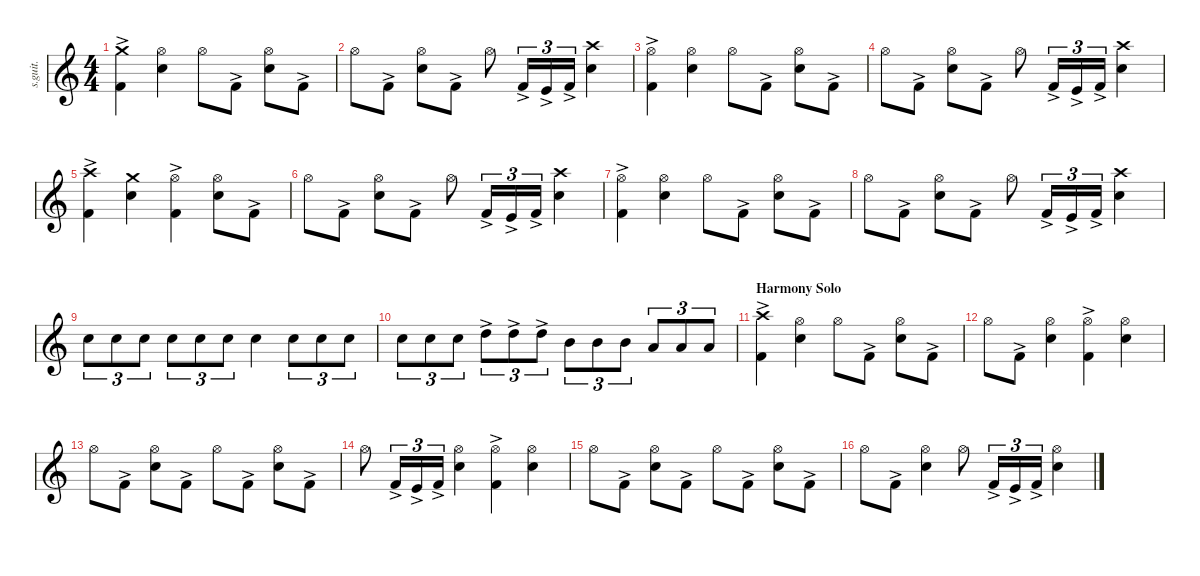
\defaultSystemsLayout 4
\hideDynamics
\bracketExtendMode nobrackets
\track ("Lars Ulrich - Drums" "s.guit.") {instrument percussion}
\staff {score}
\articulation defaults
\ts (4 4)
\tempo (220 hide)
\clef g2
\ks c
("Crash medium (hit)" "Kick (hit) 2"{ac}).4{lyrics (0 "") lyrics (1 "") lyrics (2 "") lyrics (3 "") lyrics (4 "") dy f} ("Hi-Hat (open)" "Snare (hit) 2").4{lyrics (0 "") lyrics (1 "") lyrics (2 "") lyrics (3 "") lyrics (4 "")} "Hi-Hat (open)".8{lyrics (0 "") lyrics (1 "") lyrics (2 "") lyrics (3 "") lyrics (4 "")} "Kick (hit) 2"{ac}.8{lyrics (0 "") lyrics (1 "") lyrics (2 "") lyrics (3 "") lyrics (4 "") dy mp} ("Hi-Hat (open)" "Snare (hit) 2").8{lyrics (0 "") lyrics (1 "") lyrics (2 "") lyrics (3 "") lyrics (4 "") dy f} "Kick (hit) 2"{ac}.8{lyrics (0 "") lyrics (1 "") lyrics (2 "") lyrics (3 "") lyrics (4 "") dy mp} |
"Hi-Hat (open)".8{lyrics (0 "") lyrics (1 "") lyrics (2 "") lyrics (3 "") lyrics (4 "") dy f} "Kick (hit) 2"{ac}.8{lyrics (0 "") lyrics (1 "") lyrics (2 "") lyrics (3 "") lyrics (4 "") dy mp} ("Hi-Hat (open)" "Snare (hit) 2").8{lyrics (0 "") lyrics (1 "") lyrics (2 "") lyrics (3 "") lyrics (4 "") dy f} "Kick (hit) 2"{ac}.8{lyrics (0 "") lyrics (1 "") lyrics (2 "") lyrics (3 "") lyrics (4 "") dy mp} "Hi-Hat (open)".8{lyrics (0 "") lyrics (1 "") lyrics (2 "") lyrics (3 "") lyrics (4 "") dy f} "Kick (hit) 2"{ac}.16{tu (3 2) lyrics (0 "") lyrics (1 "") lyrics (2 "") lyrics (3 "") lyrics (4 "") dy mp} "Kick (hit)"{ac}.16{tu (3 2) lyrics (0 "") lyrics (1 "") lyrics (2 "") lyrics (3 "") lyrics (4 "") dy mf} "Kick (hit) 2"{ac}.16{tu (3 2) lyrics (0 "") lyrics (1 "") lyrics (2 "") lyrics (3 "") lyrics (4 "") dy mp} ("Crash high (hit)" "Snare (hit) 2").4{lyrics (0 "") lyrics (1 "") lyrics (2 "") lyrics (3 "") lyrics (4 "") dy f} |
("Hi-Hat (open)" "Kick (hit) 2"{ac}).4{lyrics (0 "") lyrics (1 "") lyrics (2 "") lyrics (3 "") lyrics (4 "")} ("Hi-Hat (open)" "Snare (hit) 2").4{lyrics (0 "") lyrics (1 "") lyrics (2 "") lyrics (3 "") lyrics (4 "")} "Hi-Hat (open)".8{lyrics (0 "") lyrics (1 "") lyrics (2 "") lyrics (3 "") lyrics (4 "")} "Kick (hit) 2"{ac}.8{lyrics (0 "") lyrics (1 "") lyrics (2 "") lyrics (3 "") lyrics (4 "") dy mp} ("Hi-Hat (open)" "Snare (hit) 2").8{lyrics (0 "") lyrics (1 "") lyrics (2 "") lyrics (3 "") lyrics (4 "") dy f} "Kick (hit) 2"{ac}.8{lyrics (0 "") lyrics (1 "") lyrics (2 "") lyrics (3 "") lyrics (4 "") dy mp} |
"Hi-Hat (open)".8{lyrics (0 "") lyrics (1 "") lyrics (2 "") lyrics (3 "") lyrics (4 "") dy f} "Kick (hit) 2"{ac}.8{lyrics (0 "") lyrics (1 "") lyrics (2 "") lyrics (3 "") lyrics (4 "") dy mp} ("Hi-Hat (open)" "Snare (hit) 2").8{lyrics (0 "") lyrics (1 "") lyrics (2 "") lyrics (3 "") lyrics (4 "") dy f} "Kick (hit) 2"{ac}.8{lyrics (0 "") lyrics (1 "") lyrics (2 "") lyrics (3 "") lyrics (4 "") dy mp} "Hi-Hat (open)".8{lyrics (0 "") lyrics (1 "") lyrics (2 "") lyrics (3 "") lyrics (4 "") dy f} "Kick (hit) 2"{ac}.16{tu (3 2) lyrics (0 "") lyrics (1 "") lyrics (2 "") lyrics (3 "") lyrics (4 "") dy mp} "Kick (hit)"{ac}.16{tu (3 2) lyrics (0 "") lyrics (1 "") lyrics (2 "") lyrics (3 "") lyrics (4 "") dy mf} "Kick (hit) 2"{ac}.16{tu (3 2) lyrics (0 "") lyrics (1 "") lyrics (2 "") lyrics (3 "") lyrics (4 "") dy mp} ("Snare (hit) 2" "Crash high (hit)").4{lyrics (0 "") lyrics (1 "") lyrics (2 "") lyrics (3 "") lyrics (4 "") dy f} |
("Crash high (hit)" "Kick (hit) 2"{ac}).4{lyrics (0 "") lyrics (1 "") lyrics (2 "") lyrics (3 "") lyrics (4 "")} ("Snare (hit) 2" "Crash medium (hit)").4{lyrics (0 "") lyrics (1 "") lyrics (2 "") lyrics (3 "") lyrics (4 "")} ("Hi-Hat (open)" "Kick (hit) 2"{ac}).4{lyrics (0 "") lyrics (1 "") lyrics (2 "") lyrics (3 "") lyrics (4 "")} ("Hi-Hat (open)" "Snare (hit) 2").8{lyrics (0 "") lyrics (1 "") lyrics (2 "") lyrics (3 "") lyrics (4 "")} "Kick (hit) 2"{ac}.8{lyrics (0 "") lyrics (1 "") lyrics (2 "") lyrics (3 "") lyrics (4 "") dy mp} |
"Hi-Hat (open)".8{lyrics (0 "") lyrics (1 "") lyrics (2 "") lyrics (3 "") lyrics (4 "") dy f} "Kick (hit) 2"{ac}.8{lyrics (0 "") lyrics (1 "") lyrics (2 "") lyrics (3 "") lyrics (4 "") dy mp} ("Hi-Hat (open)" "Snare (hit) 2").8{lyrics (0 "") lyrics (1 "") lyrics (2 "") lyrics (3 "") lyrics (4 "") dy f} "Kick (hit) 2"{ac}.8{lyrics (0 "") lyrics (1 "") lyrics (2 "") lyrics (3 "") lyrics (4 "") dy mp} "Hi-Hat (open)".8{lyrics (0 "") lyrics (1 "") lyrics (2 "") lyrics (3 "") lyrics (4 "") dy f} "Kick (hit) 2"{ac}.16{tu (3 2) lyrics (0 "") lyrics (1 "") lyrics (2 "") lyrics (3 "") lyrics (4 "") dy mp} "Kick (hit)"{ac}.16{tu (3 2) lyrics (0 "") lyrics (1 "") lyrics (2 "") lyrics (3 "") lyrics (4 "") dy mf} "Kick (hit) 2"{ac}.16{tu (3 2) lyrics (0 "") lyrics (1 "") lyrics (2 "") lyrics (3 "") lyrics (4 "") dy mp} ("Crash high (hit)" "Snare (hit) 2").4{lyrics (0 "") lyrics (1 "") lyrics (2 "") lyrics (3 "") lyrics (4 "") dy f} |
("Hi-Hat (open)" "Kick (hit) 2"{ac}).4{lyrics (0 "") lyrics (1 "") lyrics (2 "") lyrics (3 "") lyrics (4 "")} ("Hi-Hat (open)" "Snare (hit) 2").4{lyrics (0 "") lyrics (1 "") lyrics (2 "") lyrics (3 "") lyrics (4 "")} "Hi-Hat (open)".8{lyrics (0 "") lyrics (1 "") lyrics (2 "") lyrics (3 "") lyrics (4 "")} "Kick (hit) 2"{ac}.8{lyrics (0 "") lyrics (1 "") lyrics (2 "") lyrics (3 "") lyrics (4 "") dy mp} ("Hi-Hat (open)" "Snare (hit) 2").8{lyrics (0 "") lyrics (1 "") lyrics (2 "") lyrics (3 "") lyrics (4 "") dy f} "Kick (hit) 2"{ac}.8{lyrics (0 "") lyrics (1 "") lyrics (2 "") lyrics (3 "") lyrics (4 "") dy mp} |
"Hi-Hat (open)".8{lyrics (0 "") lyrics (1 "") lyrics (2 "") lyrics (3 "") lyrics (4 "") dy f} "Kick (hit) 2"{ac}.8{lyrics (0 "") lyrics (1 "") lyrics (2 "") lyrics (3 "") lyrics (4 "") dy mp} ("Hi-Hat (open)" "Snare (hit) 2").8{lyrics (0 "") lyrics (1 "") lyrics (2 "") lyrics (3 "") lyrics (4 "") dy f} "Kick (hit) 2"{ac}.8{lyrics (0 "") lyrics (1 "") lyrics (2 "") lyrics (3 "") lyrics (4 "") dy mp} "Hi-Hat (open)".8{lyrics (0 "") lyrics (1 "") lyrics (2 "") lyrics (3 "") lyrics (4 "") dy f} "Kick (hit) 2"{ac}.16{tu (3 2) lyrics (0 "") lyrics (1 "") lyrics (2 "") lyrics (3 "") lyrics (4 "") dy mp} "Kick (hit)"{ac}.16{tu (3 2) lyrics (0 "") lyrics (1 "") lyrics (2 "") lyrics (3 "") lyrics (4 "") dy mf} "Kick (hit) 2"{ac}.16{tu (3 2) lyrics (0 "") lyrics (1 "") lyrics (2 "") lyrics (3 "") lyrics (4 "") dy mp} ("Snare (hit) 2" "Crash high (hit)").4{lyrics (0 "") lyrics (1 "") lyrics (2 "") lyrics (3 "") lyrics (4 "") dy f} |
"Snare (hit) 2".8{tu (3 2) lyrics (0 "") lyrics (1 "") lyrics (2 "") lyrics (3 "") lyrics (4 "")} "Snare (hit) 2".8{tu (3 2) lyrics (0 "") lyrics (1 "") lyrics (2 "") lyrics (3 "") lyrics (4 "")} "Snare (hit) 2".8{tu (3 2) lyrics (0 "") lyrics (1 "") lyrics (2 "") lyrics (3 "") lyrics (4 "")} "Snare (hit) 2".8{tu (3 2) lyrics (0 "") lyrics (1 "") lyrics (2 "") lyrics (3 "") lyrics (4 "")} "Snare (hit) 2".8{tu (3 2) lyrics (0 "") lyrics (1 "") lyrics (2 "") lyrics (3 "") lyrics (4 "")} "Snare (hit) 2".8{tu (3 2) lyrics (0 "") lyrics (1 "") lyrics (2 "") lyrics (3 "") lyrics (4 "")} "Snare (hit) 2".4{lyrics (0 "") lyrics (1 "") lyrics (2 "") lyrics (3 "") lyrics (4 "")} "Snare (hit) 2".8{tu (3 2) lyrics (0 "") lyrics (1 "") lyrics (2 "") lyrics (3 "") lyrics (4 "")} "Snare (hit) 2".8{tu (3 2) lyrics (0 "") lyrics (1 "") lyrics (2 "") lyrics (3 "") lyrics (4 "")} "Snare (hit) 2".8{tu (3 2) lyrics (0 "") lyrics (1 "") lyrics (2 "") lyrics (3 "") lyrics (4 "")} |
"Snare (hit) 2".8{tu (3 2) lyrics (0 "") lyrics (1 "") lyrics (2 "") lyrics (3 "") lyrics (4 "")} "Snare (hit) 2".8{tu (3 2) lyrics (0 "") lyrics (1 "") lyrics (2 "") lyrics (3 "") lyrics (4 "")} "Snare (hit) 2".8{tu (3 2) lyrics (0 "") lyrics (1 "") lyrics (2 "") lyrics (3 "") lyrics (4 "")} "High Tom (hit)"{ac}.8{tu (3 2) lyrics (0 "") lyrics (1 "") lyrics (2 "") lyrics (3 "") lyrics (4 "") dy mp} "High Tom (hit)"{ac}.8{tu (3 2) lyrics (0 "") lyrics (1 "") lyrics (2 "") lyrics (3 "") lyrics (4 "")} "High Tom (hit)"{ac}.8{tu (3 2) lyrics (0 "") lyrics (1 "") lyrics (2 "") lyrics (3 "") lyrics (4 "")} "Mid Tom (hit)".8{tu (3 2) lyrics (0 "") lyrics (1 "") lyrics (2 "") lyrics (3 "") lyrics (4 "") dy mf} "Mid Tom (hit)".8{tu (3 2) lyrics (0 "") lyrics (1 "") lyrics (2 "") lyrics (3 "") lyrics (4 "")} "Mid Tom (hit)".8{tu (3 2) lyrics (0 "") lyrics (1 "") lyrics (2 "") lyrics (3 "") lyrics (4 "")} "Low Tom (hit)".8{tu (3 2) lyrics (0 "") lyrics (1 "") lyrics (2 "") lyrics (3 "") lyrics (4 "")} "Low Tom (hit)".8{tu (3 2) lyrics (0 "") lyrics (1 "") lyrics (2 "") lyrics (3 "") lyrics (4 "")} "Low Tom (hit)".8{tu (3 2) lyrics (0 "") lyrics (1 "") lyrics (2 "") lyrics (3 "") lyrics (4 "")} |
\section ("" "Harmony Solo")
("Kick (hit) 2"{ac} "Crash high (hit)").4{lyrics (0 "") lyrics (1 "") lyrics (2 "") lyrics (3 "") lyrics (4 "") dy f} ("Hi-Hat (open)" "Snare (hit) 2").4{lyrics (0 "") lyrics (1 "") lyrics (2 "") lyrics (3 "") lyrics (4 "")} "Hi-Hat (open)".8{lyrics (0 "") lyrics (1 "") lyrics (2 "") lyrics (3 "") lyrics (4 "")} "Kick (hit) 2"{ac}.8{lyrics (0 "") lyrics (1 "") lyrics (2 "") lyrics (3 "") lyrics (4 "") dy mp} ("Hi-Hat (open)" "Snare (hit) 2").8{lyrics (0 "") lyrics (1 "") lyrics (2 "") lyrics (3 "") lyrics (4 "") dy f} "Kick (hit) 2"{ac}.8{lyrics (0 "") lyrics (1 "") lyrics (2 "") lyrics (3 "") lyrics (4 "") dy mp} |
"Hi-Hat (open)".8{lyrics (0 "") lyrics (1 "") lyrics (2 "") lyrics (3 "") lyrics (4 "") dy f} "Kick (hit) 2"{ac}.8{lyrics (0 "") lyrics (1 "") lyrics (2 "") lyrics (3 "") lyrics (4 "") dy mp} ("Hi-Hat (open)" "Snare (hit) 2").4{lyrics (0 "") lyrics (1 "") lyrics (2 "") lyrics (3 "") lyrics (4 "") dy f} ("Hi-Hat (open)" "Kick (hit) 2"{ac}).4{lyrics (0 "") lyrics (1 "") lyrics (2 "") lyrics (3 "") lyrics (4 "")} ("Hi-Hat (open)" "Snare (hit) 2").4{lyrics (0 "") lyrics (1 "") lyrics (2 "") lyrics (3 "") lyrics (4 "")} |
"Hi-Hat (open)".8{lyrics (0 "") lyrics (1 "") lyrics (2 "") lyrics (3 "") lyrics (4 "")} "Kick (hit) 2"{ac}.8{lyrics (0 "") lyrics (1 "") lyrics (2 "") lyrics (3 "") lyrics (4 "") dy mp} ("Hi-Hat (open)" "Snare (hit) 2").8{lyrics (0 "") lyrics (1 "") lyrics (2 "") lyrics (3 "") lyrics (4 "") dy f} "Kick (hit) 2"{ac}.8{lyrics (0 "") lyrics (1 "") lyrics (2 "") lyrics (3 "") lyrics (4 "") dy mp} "Hi-Hat (open)".8{lyrics (0 "") lyrics (1 "") lyrics (2 "") lyrics (3 "") lyrics (4 "") dy f} "Kick (hit) 2"{ac}.8{lyrics (0 "") lyrics (1 "") lyrics (2 "") lyrics (3 "") lyrics (4 "") dy mp} ("Hi-Hat (open)" "Snare (hit) 2").8{lyrics (0 "") lyrics (1 "") lyrics (2 "") lyrics (3 "") lyrics (4 "") dy f} "Kick (hit) 2"{ac}.8{lyrics (0 "") lyrics (1 "") lyrics (2 "") lyrics (3 "") lyrics (4 "") dy mp} |
"Hi-Hat (open)".8{lyrics (0 "") lyrics (1 "") lyrics (2 "") lyrics (3 "") lyrics (4 "") dy f} "Kick (hit) 2"{ac}.16{tu (3 2) lyrics (0 "") lyrics (1 "") lyrics (2 "") lyrics (3 "") lyrics (4 "") dy mp} "Kick (hit)"{ac}.16{tu (3 2) lyrics (0 "") lyrics (1 "") lyrics (2 "") lyrics (3 "") lyrics (4 "") dy mf} "Kick (hit) 2"{ac}.16{tu (3 2) lyrics (0 "") lyrics (1 "") lyrics (2 "") lyrics (3 "") lyrics (4 "") dy mp} ("Hi-Hat (open)" "Snare (hit) 2").4{lyrics (0 "") lyrics (1 "") lyrics (2 "") lyrics (3 "") lyrics (4 "") dy f} ("Hi-Hat (open)" "Kick (hit) 2"{ac}).4{lyrics (0 "") lyrics (1 "") lyrics (2 "") lyrics (3 "") lyrics (4 "")} ("Hi-Hat (open)" "Snare (hit) 2").4{lyrics (0 "") lyrics (1 "") lyrics (2 "") lyrics (3 "") lyrics (4 "")} |
"Hi-Hat (open)".8{lyrics (0 "") lyrics (1 "") lyrics (2 "") lyrics (3 "") lyrics (4 "")} "Kick (hit) 2"{ac}.8{lyrics (0 "") lyrics (1 "") lyrics (2 "") lyrics (3 "") lyrics (4 "") dy mp} ("Hi-Hat (open)" "Snare (hit) 2").8{lyrics (0 "") lyrics (1 "") lyrics (2 "") lyrics (3 "") lyrics (4 "") dy f} "Kick (hit) 2"{ac}.8{lyrics (0 "") lyrics (1 "") lyrics (2 "") lyrics (3 "") lyrics (4 "") dy mp} "Hi-Hat (open)".8{lyrics (0 "") lyrics (1 "") lyrics (2 "") lyrics (3 "") lyrics (4 "") dy f} "Kick (hit) 2"{ac}.8{lyrics (0 "") lyrics (1 "") lyrics (2 "") lyrics (3 "") lyrics (4 "") dy mp} ("Hi-Hat (open)" "Snare (hit) 2").8{lyrics (0 "") lyrics (1 "") lyrics (2 "") lyrics (3 "") lyrics (4 "") dy f} "Kick (hit) 2"{ac}.8{lyrics (0 "") lyrics (1 "") lyrics (2 "") lyrics (3 "") lyrics (4 "") dy mp} |
"Hi-Hat (open)".8{lyrics (0 "") lyrics (1 "") lyrics (2 "") lyrics (3 "") lyrics (4 "") dy f} "Kick (hit) 2"{ac}.8{lyrics (0 "") lyrics (1 "") lyrics (2 "") lyrics (3 "") lyrics (4 "") dy mp} ("Hi-Hat (open)" "Snare (hit) 2").4{lyrics (0 "") lyrics (1 "") lyrics (2 "") lyrics (3 "") lyrics (4 "") dy f} "Hi-Hat (open)".8{lyrics (0 "") lyrics (1 "") lyrics (2 "") lyrics (3 "") lyrics (4 "")} "Kick (hit) 2"{ac}.16{tu (3 2) lyrics (0 "") lyrics (1 "") lyrics (2 "") lyrics (3 "") lyrics (4 "") dy mp} "Kick (hit)"{ac}.16{tu (3 2) lyrics (0 "") lyrics (1 "") lyrics (2 "") lyrics (3 "") lyrics (4 "") dy mf} "Kick (hit) 2"{ac}.16{tu (3 2) lyrics (0 "") lyrics (1 "") lyrics (2 "") lyrics (3 "") lyrics (4 "") dy mp} ("Hi-Hat (open)" "Snare (hit) 2").4{lyrics (0 "") lyrics (1 "") lyrics (2 "") lyrics (3 "") lyrics (4 "") dy f}
